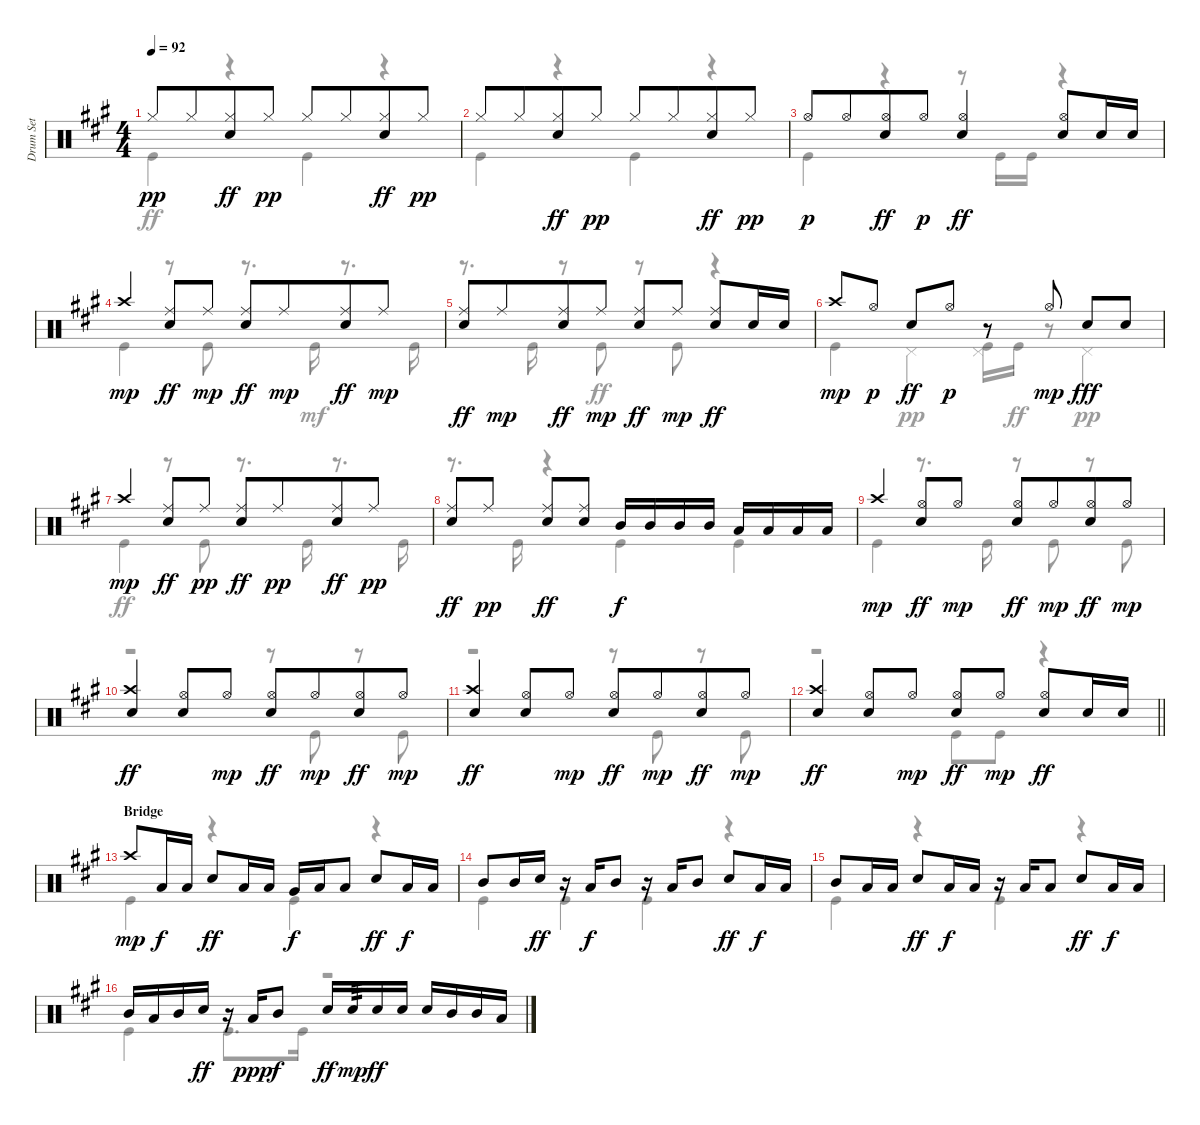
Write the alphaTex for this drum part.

\track ("Drum Set" "Drum Set") {instrument percussion}
\staff {score}
\articulation defaults
\voice
\ts (4 4)
\tempo 92
\clef neutral
\ks f#minor "Hi-Hat (closed)".8{dy pp} "Hi-Hat (closed)".8{beam merge}
("Hi-Hat (closed)" "Electric Snare (hit)").8{dy ff} "Hi-Hat (closed)".8{dy pp} "Hi-Hat (closed)".8 "Hi-Hat (closed)".8{beam merge} ("Hi-Hat (closed)" "Electric Snare (hit)").8{dy ff} "Hi-Hat (closed)".8{dy pp} |
"Hi-Hat (closed)".8 "Hi-Hat (closed)".8{beam merge} ("Hi-Hat (closed)" "Electric Snare (hit)").8{dy ff} "Hi-Hat (closed)".8{dy pp} "Hi-Hat (closed)".8 "Hi-Hat (closed)".8{beam merge} ("Hi-Hat (closed)" "Electric Snare (hit)").8{dy ff} "Hi-Hat (closed)".8{dy pp} |
"Hi-Hat (open)".8{dy p} "Hi-Hat (open)".8{beam merge} ("Hi-Hat (open)" "Electric Snare (hit)").8{dy ff} "Hi-Hat (open)".8{dy p} ("Hi-Hat (open)" "Electric Snare (hit)").4{dy ff} ("Hi-Hat (open)" "Electric Snare (hit)").8 "Electric Snare (hit)".16 "Electric Snare (hit)".16 |
"Crash high (hit)".4{dy mp} ("Ride (middle)" "Electric Snare (hit)").8{dy ff} "Ride (middle)".8{dy mp} ("Ride (middle)" "Electric Snare (hit)").8{dy ff} "Ride (middle)".8{dy mp beam merge} ("Ride (middle)" "Electric Snare (hit)").8{dy ff} "Ride (middle)".8{dy mp} |
("Ride (middle)" "Electric Snare (hit)").8{dy ff} "Ride (middle)".8{dy mp beam merge} ("Ride (middle)" "Electric Snare (hit)").8{dy ff} "Ride (middle)".8{dy mp} ("Ride (middle)" "Electric Snare (hit)").8{dy ff} "Ride (middle)".8{dy mp} ("Ride (middle)" "Electric Snare (hit)").8{dy ff} "Electric Snare (hit)".16 "Electric Snare (hit)".16 |
"Crash high (hit)".8{dy mp} "Hi-Hat (open)".8{dy p beam split} "Electric Snare (hit)".8{dy ff} "Hi-Hat (open)".8{dy p} r.8 "Hi-Hat (open)".8{dy mp} "Electric Snare (hit)".8{dy fff} "Electric Snare (hit)".8 |
"Crash high (hit)".4{dy mp} ("Ride (middle)" "Electric Snare (hit)").8{dy ff} "Ride (middle)".8{dy pp} ("Ride (middle)" "Electric Snare (hit)").8{dy ff} "Ride (middle)".8{dy pp beam merge} ("Ride (middle)" "Electric Snare (hit)").8{dy ff} "Ride (middle)".8{dy pp} |
("Ride (middle)" "Electric Snare (hit)").8{dy ff} "Ride (middle)".8{dy pp beam split} ("Ride (middle)" "Electric Snare (hit)").8{dy ff} ("Ride (middle)" "Electric Snare (hit)").8 "Mid Tom (hit)".16{dy f} "Mid Tom (hit)".16 "Mid Tom (hit)".16 "Mid Tom (hit)".16 "Low Tom (hit)".16 "Low Tom (hit)".16 "Low Tom (hit)".16 "Low Tom (hit)".16 |
"Crash high (hit)".4{dy mp} ("Hi-Hat (open)" "Electric Snare (hit)").8{dy ff} "Hi-Hat (open)".8{dy mp} ("Hi-Hat (open)" "Electric Snare (hit)").8{dy ff} "Hi-Hat (open)".8{dy mp beam merge} ("Hi-Hat (open)" "Electric Snare (hit)").8{dy ff} "Hi-Hat (open)".8{dy mp} |
("Crash high (hit)" "Electric Snare (hit)").4{dy ff} ("Hi-Hat (open)" "Electric Snare (hit)").8 "Hi-Hat (open)".8{dy mp} ("Hi-Hat (open)" "Electric Snare (hit)").8{dy ff} "Hi-Hat (open)".8{dy mp beam merge} ("Hi-Hat (open)" "Electric Snare (hit)").8{dy ff} "Hi-Hat (open)".8{dy mp} |
("Crash high (hit)" "Electric Snare (hit)").4{dy ff} ("Hi-Hat (open)" "Electric Snare (hit)").8 "Hi-Hat (open)".8{dy mp} ("Hi-Hat (open)" "Electric Snare (hit)").8{dy ff} "Hi-Hat (open)".8{dy mp beam merge} ("Hi-Hat (open)" "Electric Snare (hit)").8{dy ff} "Hi-Hat (open)".8{dy mp} |
\barLineRight lightlight
("Crash high (hit)" "Electric Snare (hit)").4{dy ff} ("Hi-Hat (open)" "Electric Snare (hit)").8 "Hi-Hat (open)".8{dy mp} ("Hi-Hat (open)" "Electric Snare (hit)").8{dy ff} "Hi-Hat (open)".8{dy mp beam split} ("Hi-Hat (open)" "Electric Snare (hit)").8{dy ff} "Electric Snare (hit)".16 "Electric Snare (hit)".16 |
\section ("" "Bridge")
"Crash high (hit)".8{dy mp} "Low Tom (hit)".16{dy f} "Low Tom (hit)".16 "Electric Snare (hit)".8{dy ff} "Low Tom (hit)".16 "Low Tom (hit)".16 "Very Low Tom (hit)".16{dy f} "Low Tom (hit)".16 "Low Tom (hit)".8 "Electric Snare (hit)".8{dy ff} "Low Tom (hit)".16{dy f} "Low Tom (hit)".16 |
"Mid Tom (hit)".8 "Mid Tom (hit)".16 "Electric Snare (hit)".16{dy ff} r.16 "Low Tom (hit)".16{dy f} "Mid Tom (hit)".8 r.16 "Low Tom (hit)".16 "Mid Tom (hit)".8 "Electric Snare (hit)".8{dy ff} "Low Tom (hit)".16{dy f} "Low Tom (hit)".16 |
"Mid Tom (hit)".8 "Low Tom (hit)".16 "Low Tom (hit)".16 "Electric Snare (hit)".8{dy ff} "Low Tom (hit)".16{dy f} "Low Tom (hit)".16 r.16 "Low Tom (hit)".16 "Low Tom (hit)".8 "Electric Snare (hit)".8{dy ff} "Low Tom (hit)".16{dy f} "Low Tom (hit)".16 |
"Mid Tom (hit)".16 "Low Tom (hit)".16 "Mid Tom (hit)".16 "Electric Snare (hit)".16{dy ff} r.16 "Low Tom (hit)".16{dy ppp} "Mid Tom (hit)".8{dy f} "Electric Snare (hit)".16{dy ff} "Electric Snare (hit)".16{tp 3 dy mp} "Electric Snare (hit)".16{dy ff} "Electric Snare (hit)".16 "Electric Snare (hit)".16 "Mid Tom (hit)".16 "Mid Tom (hit)".16 "Low Tom (hit)".16
\voice
\clef neutral
\ottava regular
\simile none
\ks f#minor "Kick (hit)".4{dy ff}
r.4 "Kick (hit)".4 r.4 |
"Kick (hit)".4 r.4 "Kick (hit)".4 r.4 |
"Kick (hit)".4 r.4 r.8 "Kick (hit)".16 "Kick (hit)".16 r.4 |
"Kick (hit)".4 r.8 "Kick (hit)".8 r.8{d} "Kick (hit)".16{dy mf} r.8{d} "Kick (hit)".16 |
r.8{d} "Kick (hit)".16 r.8 "Kick (hit)".8{dy ff} r.8 "Kick (hit)".8 r.4 |
"Kick (hit)".4 "Pedal Hi-Hat (hit)".4{dy pp} ("Kick (hit)" "Pedal Hi-Hat (hit)").16 "Kick (hit)".16{dy ff} r.8 "Pedal Hi-Hat (hit)".4{dy pp} |
"Kick (hit)".4{dy ff} r.8 "Kick (hit)".8 r.8{d} "Kick (hit)".16 r.8{d} "Kick (hit)".16 |
r.8{d} "Kick (hit)".16 r.4 "Kick (hit)".4 "Kick (hit)".4 |
"Kick (hit)".4 r.8{d} "Kick (hit)".16 r.8 "Kick (hit)".8 r.8 "Kick (hit)".8 |
r.2 r.8 "Kick (hit)".8 r.8 "Kick (hit)".8 |
r.2 r.8 "Kick (hit)".8 r.8 "Kick (hit)".8 |
\barLineRight lightlight
r.2 "Kick (hit)".8 "Kick (hit)".8 r.4 |
"Kick (hit)".4 r.4 "Kick (hit)".4 r.4 |
"Kick (hit)".4 "Kick (hit)".4 "Kick (hit)".4 r.4 |
"Kick (hit)".4 r.4 "Kick (hit)".4 r.4 |
"Kick (hit)".4 "Kick (hit)".8{d} "Kick (hit)".16 r.2
